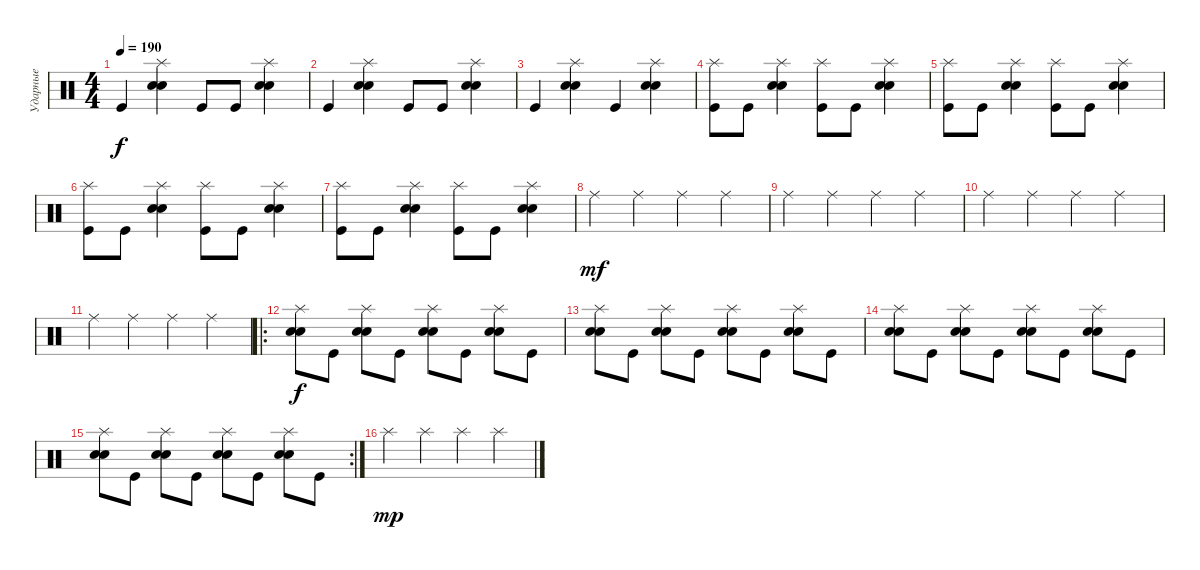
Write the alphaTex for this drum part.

\track ("Ударные" "Ударные") {instrument percussion}
\staff {score}
\articulation defaults
\ts (4 4)
\tempo 190
\clef neutral
\ks c "Kick (hit)".4{dy f}
("Splash (hit)" "Snare (hit) 2" "Electric Snare (hit)").4 "Kick (hit)".8 "Kick (hit)".8 ("Splash (hit)" "Snare (hit) 2" "Electric Snare (hit)").4 |
"Kick (hit)".4 ("Splash (hit)" "Snare (hit) 2" "Electric Snare (hit)").4 "Kick (hit)".8 "Kick (hit)".8 ("Splash (hit)" "Snare (hit) 2" "Electric Snare (hit)").4 |
"Kick (hit)".4 ("Splash (hit)" "Snare (hit) 2" "Electric Snare (hit)").4 "Kick (hit)".4 ("Splash (hit)" "Snare (hit) 2" "Electric Snare (hit)").4 |
("Splash (hit)" "Kick (hit)").8 "Kick (hit)".8 ("Splash (hit)" "Snare (hit) 2" "Electric Snare (hit)").4 ("Splash (hit)" "Kick (hit)").8 "Kick (hit)".8 ("Splash (hit)" "Snare (hit) 2" "Electric Snare (hit)").4 |
("Splash (hit)" "Kick (hit)").8 "Kick (hit)".8 ("Splash (hit)" "Snare (hit) 2" "Electric Snare (hit)").4 ("Splash (hit)" "Kick (hit)").8 "Kick (hit)".8 ("Splash (hit)" "Snare (hit) 2" "Electric Snare (hit)").4 |
("Splash (hit)" "Kick (hit)").8 "Kick (hit)".8 ("Splash (hit)" "Snare (hit) 2" "Electric Snare (hit)").4 ("Splash (hit)" "Kick (hit)").8 "Kick (hit)".8 ("Splash (hit)" "Snare (hit) 2" "Electric Snare (hit)").4 |
("Splash (hit)" "Kick (hit)").8 "Kick (hit)".8 ("Splash (hit)" "Snare (hit) 2" "Electric Snare (hit)").4 ("Splash (hit)" "Kick (hit)").8 "Kick (hit)".8 ("Splash (hit)" "Snare (hit) 2" "Electric Snare (hit)").4 |
"Ride (middle)".4{dy mf} "Ride (middle)".4 "Ride (middle)".4 "Ride (middle)".4 |
"Ride (middle)".4 "Ride (middle)".4 "Ride (middle)".4 "Ride (middle)".4 |
"Ride (middle)".4 "Ride (middle)".4 "Ride (middle)".4 "Ride (middle)".4 |
"Ride (middle)".4 "Ride (middle)".4 "Ride (middle)".4 "Ride (middle)".4 |
\ro
("Splash (hit)" "Electric Snare (hit)" "Snare (hit) 2").8{dy f} "Kick (hit)".8 ("Splash (hit)" "Electric Snare (hit)" "Snare (hit) 2").8 "Kick (hit)".8 ("Splash (hit)" "Electric Snare (hit)" "Snare (hit) 2").8 "Kick (hit)".8 ("Splash (hit)" "Electric Snare (hit)" "Snare (hit) 2").8 "Kick (hit)".8 |
("Splash (hit)" "Electric Snare (hit)" "Snare (hit) 2").8 "Kick (hit)".8 ("Splash (hit)" "Electric Snare (hit)" "Snare (hit) 2").8 "Kick (hit)".8 ("Splash (hit)" "Electric Snare (hit)" "Snare (hit) 2").8 "Kick (hit)".8 ("Splash (hit)" "Electric Snare (hit)" "Snare (hit) 2").8 "Kick (hit)".8 |
("Splash (hit)" "Electric Snare (hit)" "Snare (hit) 2").8 "Kick (hit)".8 ("Splash (hit)" "Electric Snare (hit)" "Snare (hit) 2").8 "Kick (hit)".8 ("Splash (hit)" "Electric Snare (hit)" "Snare (hit) 2").8 "Kick (hit)".8 ("Splash (hit)" "Electric Snare (hit)" "Snare (hit) 2").8 "Kick (hit)".8 |
\rc 2
("Splash (hit)" "Electric Snare (hit)" "Snare (hit) 2").8 "Kick (hit)".8 ("Splash (hit)" "Electric Snare (hit)" "Snare (hit) 2").8 "Kick (hit)".8 ("Splash (hit)" "Electric Snare (hit)" "Snare (hit) 2").8 "Kick (hit)".8 ("Splash (hit)" "Electric Snare (hit)" "Snare (hit) 2").8 "Kick (hit)".8 |
"Splash (hit)".4{dy mp} "Splash (hit)".4 "Splash (hit)".4 "Splash (hit)".4
